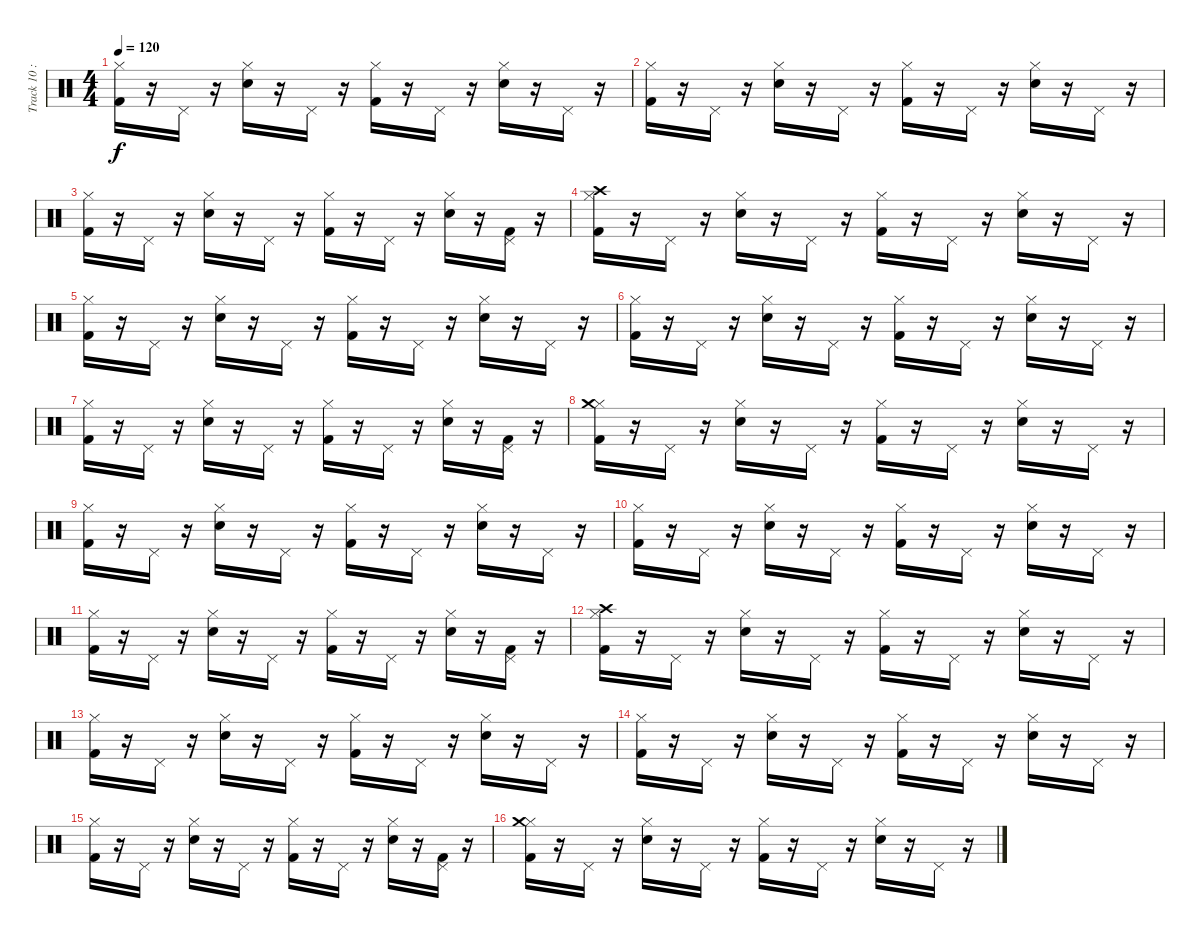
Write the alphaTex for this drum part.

\track ("Track 10 : unspecified" "Track 10 :") {instrument percussion}
\staff {score}
\articulation defaults
\ts (4 4)
\tempo 120
\clef neutral
\ks c
("Kick (hit) 2" "Hi-Hat (closed)").16{dy f} r.16 "Pedal Hi-Hat (hit)".16 r.16 ("Electric Snare (hit)" "Hi-Hat (closed)").16 r.16 "Pedal Hi-Hat (hit)".16 r.16 ("Hi-Hat (closed)" "Kick (hit) 2").16 r.16 "Pedal Hi-Hat (hit)".16 r.16 ("Electric Snare (hit)" "Hi-Hat (closed)").16 r.16 "Pedal Hi-Hat (hit)".16 r.16 |
("Kick (hit) 2" "Hi-Hat (closed)").16 r.16 "Pedal Hi-Hat (hit)".16 r.16 ("Electric Snare (hit)" "Hi-Hat (closed)").16 r.16 "Pedal Hi-Hat (hit)".16 r.16 ("Kick (hit) 2" "Hi-Hat (closed)").16 r.16 "Pedal Hi-Hat (hit)".16 r.16 ("Electric Snare (hit)" "Hi-Hat (closed)").16 r.16 "Pedal Hi-Hat (hit)".16 r.16 |
("Kick (hit) 2" "Hi-Hat (closed)").16 r.16 "Pedal Hi-Hat (hit)".16 r.16 ("Electric Snare (hit)" "Hi-Hat (closed)").16 r.16 "Pedal Hi-Hat (hit)".16 r.16 ("Hi-Hat (closed)" "Kick (hit) 2").16 r.16 "Pedal Hi-Hat (hit)".16 r.16 ("Electric Snare (hit)" "Hi-Hat (closed)").16 r.16 ("Pedal Hi-Hat (hit)" "Kick (hit) 2").16 r.16 |
("Hi-Hat (closed)" "Crash high (hit)" "Kick (hit) 2").16 r.16 "Pedal Hi-Hat (hit)".16 r.16 ("Hi-Hat (closed)" "Electric Snare (hit)").16 r.16 "Pedal Hi-Hat (hit)".16 r.16 ("Hi-Hat (closed)" "Kick (hit) 2").16 r.16 "Pedal Hi-Hat (hit)".16 r.16 ("Electric Snare (hit)" "Hi-Hat (closed)").16 r.16 "Pedal Hi-Hat (hit)".16 r.16 |
("Kick (hit) 2" "Hi-Hat (closed)").16 r.16 "Pedal Hi-Hat (hit)".16 r.16 ("Electric Snare (hit)" "Hi-Hat (closed)").16 r.16 "Pedal Hi-Hat (hit)".16 r.16 ("Hi-Hat (closed)" "Kick (hit) 2").16 r.16 "Pedal Hi-Hat (hit)".16 r.16 ("Electric Snare (hit)" "Hi-Hat (closed)").16 r.16 "Pedal Hi-Hat (hit)".16 r.16 |
("Kick (hit) 2" "Hi-Hat (closed)").16 r.16 "Pedal Hi-Hat (hit)".16 r.16 ("Electric Snare (hit)" "Hi-Hat (closed)").16 r.16 "Pedal Hi-Hat (hit)".16 r.16 ("Kick (hit) 2" "Hi-Hat (closed)").16 r.16 "Pedal Hi-Hat (hit)".16 r.16 ("Electric Snare (hit)" "Hi-Hat (closed)").16 r.16 "Pedal Hi-Hat (hit)".16 r.16 |
("Kick (hit) 2" "Hi-Hat (closed)").16 r.16 "Pedal Hi-Hat (hit)".16 r.16 ("Electric Snare (hit)" "Hi-Hat (closed)").16 r.16 "Pedal Hi-Hat (hit)".16 r.16 ("Hi-Hat (closed)" "Kick (hit) 2").16 r.16 "Pedal Hi-Hat (hit)".16 r.16 ("Electric Snare (hit)" "Hi-Hat (closed)").16 r.16 ("Pedal Hi-Hat (hit)" "Kick (hit) 2").16 r.16 |
("Hi-Hat (closed)" "Crash medium (hit)" "Kick (hit) 2").16 r.16 "Pedal Hi-Hat (hit)".16 r.16 ("Hi-Hat (closed)" "Electric Snare (hit)").16 r.16 "Pedal Hi-Hat (hit)".16 r.16 ("Hi-Hat (closed)" "Kick (hit) 2").16 r.16 "Pedal Hi-Hat (hit)".16 r.16 ("Electric Snare (hit)" "Hi-Hat (closed)").16 r.16 "Pedal Hi-Hat (hit)".16 r.16 |
("Kick (hit) 2" "Hi-Hat (closed)").16 r.16 "Pedal Hi-Hat (hit)".16 r.16 ("Electric Snare (hit)" "Hi-Hat (closed)").16 r.16 "Pedal Hi-Hat (hit)".16 r.16 ("Hi-Hat (closed)" "Kick (hit) 2").16 r.16 "Pedal Hi-Hat (hit)".16 r.16 ("Electric Snare (hit)" "Hi-Hat (closed)").16 r.16 "Pedal Hi-Hat (hit)".16 r.16 |
("Kick (hit) 2" "Hi-Hat (closed)").16 r.16 "Pedal Hi-Hat (hit)".16 r.16 ("Electric Snare (hit)" "Hi-Hat (closed)").16 r.16 "Pedal Hi-Hat (hit)".16 r.16 ("Kick (hit) 2" "Hi-Hat (closed)").16 r.16 "Pedal Hi-Hat (hit)".16 r.16 ("Electric Snare (hit)" "Hi-Hat (closed)").16 r.16 "Pedal Hi-Hat (hit)".16 r.16 |
("Kick (hit) 2" "Hi-Hat (closed)").16 r.16 "Pedal Hi-Hat (hit)".16 r.16 ("Electric Snare (hit)" "Hi-Hat (closed)").16 r.16 "Pedal Hi-Hat (hit)".16 r.16 ("Hi-Hat (closed)" "Kick (hit) 2").16 r.16 "Pedal Hi-Hat (hit)".16 r.16 ("Electric Snare (hit)" "Hi-Hat (closed)").16 r.16 ("Pedal Hi-Hat (hit)" "Kick (hit) 2").16 r.16 |
("Hi-Hat (closed)" "Crash high (hit)" "Kick (hit) 2").16 r.16 "Pedal Hi-Hat (hit)".16 r.16 ("Hi-Hat (closed)" "Electric Snare (hit)").16 r.16 "Pedal Hi-Hat (hit)".16 r.16 ("Hi-Hat (closed)" "Kick (hit) 2").16 r.16 "Pedal Hi-Hat (hit)".16 r.16 ("Electric Snare (hit)" "Hi-Hat (closed)").16 r.16 "Pedal Hi-Hat (hit)".16 r.16 |
("Kick (hit) 2" "Hi-Hat (closed)").16 r.16 "Pedal Hi-Hat (hit)".16 r.16 ("Electric Snare (hit)" "Hi-Hat (closed)").16 r.16 "Pedal Hi-Hat (hit)".16 r.16 ("Hi-Hat (closed)" "Kick (hit) 2").16 r.16 "Pedal Hi-Hat (hit)".16 r.16 ("Electric Snare (hit)" "Hi-Hat (closed)").16 r.16 "Pedal Hi-Hat (hit)".16 r.16 |
("Kick (hit) 2" "Hi-Hat (closed)").16 r.16 "Pedal Hi-Hat (hit)".16 r.16 ("Electric Snare (hit)" "Hi-Hat (closed)").16 r.16 "Pedal Hi-Hat (hit)".16 r.16 ("Kick (hit) 2" "Hi-Hat (closed)").16 r.16 "Pedal Hi-Hat (hit)".16 r.16 ("Electric Snare (hit)" "Hi-Hat (closed)").16 r.16 "Pedal Hi-Hat (hit)".16 r.16 |
("Kick (hit) 2" "Hi-Hat (closed)").16 r.16 "Pedal Hi-Hat (hit)".16 r.16 ("Electric Snare (hit)" "Hi-Hat (closed)").16 r.16 "Pedal Hi-Hat (hit)".16 r.16 ("Hi-Hat (closed)" "Kick (hit) 2").16 r.16 "Pedal Hi-Hat (hit)".16 r.16 ("Electric Snare (hit)" "Hi-Hat (closed)").16 r.16 ("Pedal Hi-Hat (hit)" "Kick (hit) 2").16 r.16 |
("Hi-Hat (closed)" "Crash medium (hit)" "Kick (hit) 2").16 r.16 "Pedal Hi-Hat (hit)".16 r.16 ("Hi-Hat (closed)" "Electric Snare (hit)").16 r.16 "Pedal Hi-Hat (hit)".16 r.16 ("Hi-Hat (closed)" "Kick (hit) 2").16 r.16 "Pedal Hi-Hat (hit)".16 r.16 ("Electric Snare (hit)" "Hi-Hat (closed)").16 r.16 "Pedal Hi-Hat (hit)".16 r.16
